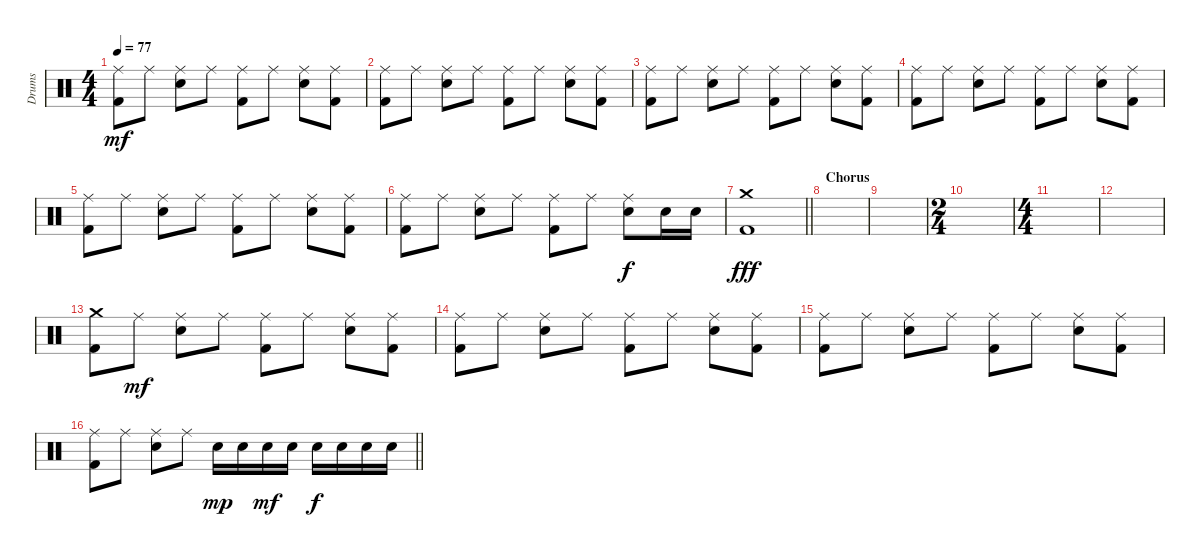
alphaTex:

\track ("Drums" "Drums") {instrument percussion}
\staff {score}
\articulation defaults
\ts (4 4)
\tempo 77
\clef neutral
\ks c
("Ride (middle)" "Kick (hit) 2").8{dy mf} "Ride (middle)".8 ("Ride (middle)" "Electric Snare (hit)").8 "Ride (middle)".8 ("Ride (middle)" "Kick (hit) 2").8 "Ride (middle)".8 ("Ride (middle)" "Electric Snare (hit)").8 ("Ride (middle)" "Kick (hit) 2").8 |
("Ride (middle)" "Kick (hit) 2").8 "Ride (middle)".8 ("Ride (middle)" "Electric Snare (hit)").8 "Ride (middle)".8 ("Ride (middle)" "Kick (hit) 2").8 "Ride (middle)".8 ("Ride (middle)" "Electric Snare (hit)").8 ("Ride (middle)" "Kick (hit) 2").8 |
("Ride (middle)" "Kick (hit) 2").8 "Ride (middle)".8 ("Ride (middle)" "Electric Snare (hit)").8 "Ride (middle)".8 ("Ride (middle)" "Kick (hit) 2").8 "Ride (middle)".8 ("Ride (middle)" "Electric Snare (hit)").8 ("Ride (middle)" "Kick (hit) 2").8 |
("Ride (middle)" "Kick (hit) 2").8 "Ride (middle)".8 ("Ride (middle)" "Electric Snare (hit)").8 "Ride (middle)".8 ("Ride (middle)" "Kick (hit) 2").8 "Ride (middle)".8 ("Ride (middle)" "Electric Snare (hit)").8 ("Ride (middle)" "Kick (hit) 2").8 |
("Ride (middle)" "Kick (hit) 2").8 "Ride (middle)".8 ("Ride (middle)" "Electric Snare (hit)").8 "Ride (middle)".8 ("Ride (middle)" "Kick (hit) 2").8 "Ride (middle)".8 ("Ride (middle)" "Electric Snare (hit)").8 ("Ride (middle)" "Kick (hit) 2").8 |
("Ride (middle)" "Kick (hit) 2").8 "Ride (middle)".8 ("Ride (middle)" "Electric Snare (hit)").8 "Ride (middle)".8 ("Ride (middle)" "Kick (hit) 2").8 "Ride (middle)".8 ("Ride (middle)" "Electric Snare (hit)").8{dy f} "Electric Snare (hit)".16 "Electric Snare (hit)".16 |
\barLineRight lightlight
("Crash medium (hit)" "Kick (hit) 2").1{dy fff} |
\section ("" "Chorus")
|
|
\ts (2 4)
|
\ts (4 4)
|
|
("Crash medium (hit)" "Kick (hit) 2").8 "Ride (middle)".8{dy mf} ("Ride (middle)" "Electric Snare (hit)").8 "Ride (middle)".8 ("Ride (middle)" "Kick (hit) 2").8 "Ride (middle)".8 ("Ride (middle)" "Electric Snare (hit)").8 ("Ride (middle)" "Kick (hit) 2").8 |
("Ride (middle)" "Kick (hit) 2").8 "Ride (middle)".8 ("Ride (middle)" "Electric Snare (hit)").8 "Ride (middle)".8 ("Ride (middle)" "Kick (hit) 2").8 "Ride (middle)".8 ("Ride (middle)" "Electric Snare (hit)").8 ("Ride (middle)" "Kick (hit) 2").8 |
("Ride (middle)" "Kick (hit) 2").8 "Ride (middle)".8 ("Ride (middle)" "Electric Snare (hit)").8 "Ride (middle)".8 ("Ride (middle)" "Kick (hit) 2").8 "Ride (middle)".8 ("Ride (middle)" "Electric Snare (hit)").8 ("Ride (middle)" "Kick (hit) 2").8 |
\barLineRight lightlight
("Ride (middle)" "Kick (hit) 2").8 "Ride (middle)".8 ("Ride (middle)" "Electric Snare (hit)").8 "Ride (middle)".8 "Electric Snare (hit)".16{dy mp} "Electric Snare (hit)".16 "Electric Snare (hit)".16{dy mf} "Electric Snare (hit)".16 "Electric Snare (hit)".16{dy f} "Electric Snare (hit)".16 "Electric Snare (hit)".16 "Electric Snare (hit)".16
